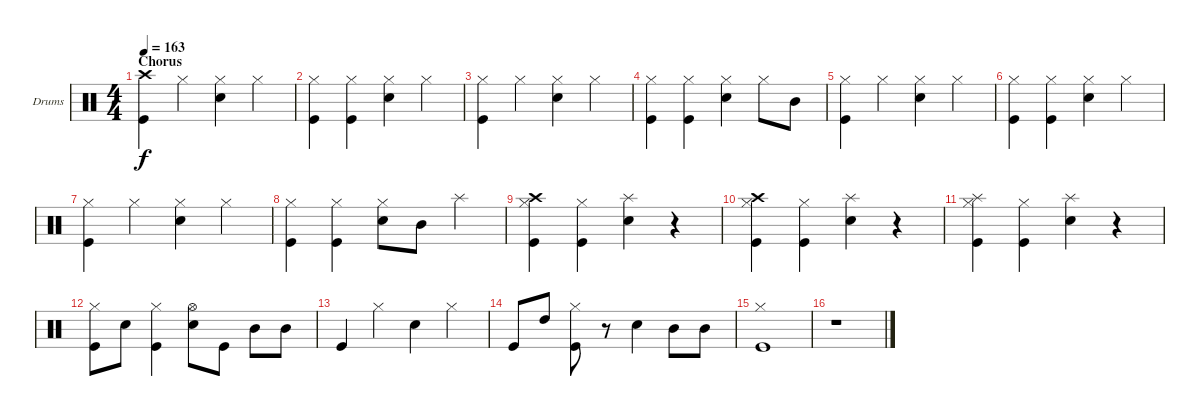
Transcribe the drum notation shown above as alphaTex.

\bracketExtendMode groupsimilarinstruments
\firstSystemTrackNameOrientation horizontal
\otherSystemsTrackNameOrientation horizontal
\track ("Drumkit" "Drums") {instrument percussion}
\staff {score}
\articulation defaults
\ts (4 4)
\section ("" "Chorus")
\tempo 163
\clef neutral
\scale
0.333333
\ks c
("Crash high (hit)" "Kick (hit)").4{dy f} "Hi-Hat (closed)".4 ("Hi-Hat (closed)" "Snare (hit) 2").4 "Hi-Hat (closed)".4 |
\scale
0.333333 ("Hi-Hat (closed)" "Kick (hit)").4 ("Hi-Hat (closed)" "Kick (hit)").4 ("Hi-Hat (closed)" "Snare (hit) 2").4 "Hi-Hat (closed)".4 |
\scale
0.333333 ("Hi-Hat (closed)" "Kick (hit)").4 "Hi-Hat (closed)".4 ("Hi-Hat (closed)" "Snare (hit) 2").4 "Hi-Hat (closed)".4 |
\scale
0.333333 ("Hi-Hat (closed)" "Kick (hit)").4 ("Hi-Hat (closed)" "Kick (hit)").4 ("Hi-Hat (closed)" "Snare (hit) 2").4 "Hi-Hat (closed)".8 "Mid Tom (hit)".8 |
\scale
0.333333 ("Hi-Hat (closed)" "Kick (hit)").4 "Hi-Hat (closed)".4 ("Hi-Hat (closed)" "Snare (hit) 2").4 "Hi-Hat (closed)".4 |
\scale
0.333333 ("Hi-Hat (closed)" "Kick (hit)").4 ("Hi-Hat (closed)" "Kick (hit)").4 ("Hi-Hat (closed)" "Snare (hit) 2").4 "Hi-Hat (closed)".4 |
\scale
0.333333 ("Hi-Hat (closed)" "Kick (hit)").4 "Hi-Hat (closed)".4 ("Hi-Hat (closed)" "Snare (hit) 2").4 "Hi-Hat (closed)".4 |
\scale
0.333333 ("Hi-Hat (closed)" "Kick (hit)").4 ("Hi-Hat (closed)" "Kick (hit)").4 ("Hi-Hat (closed)" "Snare (hit) 2").8 "Mid Tom (hit)".8 "Splash (hit)".4 |
\scale
0.333333 ("Crash high (hit)" "Kick (hit)" "Hi-Hat (closed)").4 ("Kick (hit)" "Hi-Hat (closed)").4 ("Splash (hit)" "Snare (hit) 2").4 r.4 |
\scale
0.333333 ("Crash high (hit)" "Kick (hit)" "Hi-Hat (closed)").4 ("Kick (hit)" "Hi-Hat (closed)").4 ("Splash (hit)" "Snare (hit) 2").4 r.4 |
\scale
0.333333 ("Splash (hit)" "Kick (hit)" "Hi-Hat (closed)").4 ("Kick (hit)" "Hi-Hat (closed)").4 ("Splash (hit)" "Snare (hit) 2").4 r.4 |
\scale
0.333333 ("Kick (hit)" "Hi-Hat (closed)").8 "Snare (hit) 2".8 ("Kick (hit)" "Hi-Hat (closed)").4 ("Hi-Hat (open)" "Snare (hit) 2").8 "Kick (hit)".8 "Mid Tom (hit)".8 "Mid Tom (hit)".8 |
\scale
0.333333 "Kick (hit)".4 "Hi-Hat (closed)".4 "Snare (hit) 2".4 "Hi-Hat (closed)".4 |
\scale
0.333333 "Kick (hit)".8 "High Tom (hit)".8 ("Hi-Hat (closed)" "Kick (hit)").8 r.8 "Snare (hit) 2".4 "Mid Tom (hit)".8 "Mid Tom (hit)".8 |
\scale
0.333333 ("Hi-Hat (closed)" "Kick (hit)").1 |
\scale
0.333333 r.1
